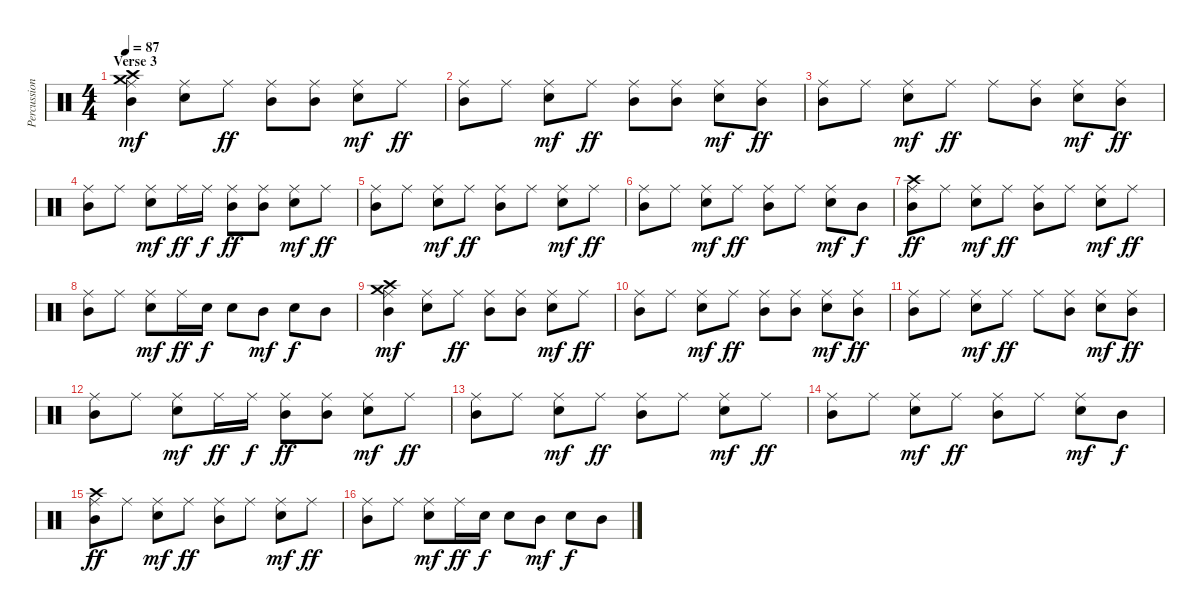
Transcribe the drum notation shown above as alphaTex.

\track ("Percussion" "Percussion") {instrument percussion}
\staff {score}
\articulation defaults
\ts (4 4)
\section ("" "Verse 3")
\tempo 87
\clef neutral
\ks c
("Ride (middle)" "Crash high (hit)" "Crash medium (hit)" "Mid Tom (hit)").4{dy mf} ("Ride (middle)" "Snare (hit) 2").8 "Ride (middle)".8{dy ff} ("Ride (middle)" "Mid Tom (hit)").8 ("Ride (middle)" "Mid Tom (hit)").8 ("Ride (middle)" "Snare (hit) 2").8{dy mf} "Ride (middle)".8{dy ff} |
("Ride (middle)" "Mid Tom (hit)").8 "Ride (middle)".8 ("Ride (middle)" "Snare (hit) 2").8{dy mf} "Ride (middle)".8{dy ff} ("Ride (middle)" "Mid Tom (hit)").8 ("Ride (middle)" "Mid Tom (hit)").8 ("Ride (middle)" "Snare (hit) 2").8{dy mf} ("Ride (middle)" "Mid Tom (hit)").8{dy ff} |
("Ride (middle)" "Mid Tom (hit)").8 "Ride (middle)".8 ("Ride (middle)" "Snare (hit) 2").8{dy mf} "Ride (middle)".8{dy ff} "Ride (middle)".8 ("Ride (middle)" "Mid Tom (hit)").8 ("Ride (middle)" "Snare (hit) 2").8{dy mf} ("Ride (middle)" "Mid Tom (hit)").8{dy ff} |
("Ride (middle)" "Mid Tom (hit)").8 "Ride (middle)".8 ("Ride (middle)" "Snare (hit) 2").8{dy mf} "Ride (middle)".16{dy ff} "Ride (middle)".16{dy f} ("Ride (middle)" "Mid Tom (hit)").8{dy ff} ("Ride (middle)" "Mid Tom (hit)").8 ("Ride (middle)" "Snare (hit) 2").8{dy mf} "Ride (middle)".8{dy ff} |
("Ride (middle)" "Mid Tom (hit)").8 "Ride (middle)".8 ("Ride (middle)" "Snare (hit) 2").8{dy mf} "Ride (middle)".8{dy ff} ("Ride (middle)" "Mid Tom (hit)").8 "Ride (middle)".8 ("Ride (middle)" "Snare (hit) 2").8{dy mf} "Ride (middle)".8{dy ff} |
("Ride (middle)" "Mid Tom (hit)").8 "Ride (middle)".8 ("Ride (middle)" "Snare (hit) 2").8{dy mf} "Ride (middle)".8{dy ff} ("Ride (middle)" "Mid Tom (hit)").8 "Ride (middle)".8 ("Ride (middle)" "Snare (hit) 2").8{dy mf} "Mid Tom (hit)".8{dy f} |
("Ride (middle)" "Crash high (hit)" "Mid Tom (hit)").8{dy ff} "Ride (middle)".8 ("Ride (middle)" "Snare (hit) 2").8{dy mf} "Ride (middle)".8{dy ff} ("Ride (middle)" "Mid Tom (hit)").8 "Ride (middle)".8 ("Ride (middle)" "Snare (hit) 2").8{dy mf} "Ride (middle)".8{dy ff} |
("Ride (middle)" "Mid Tom (hit)").8 "Ride (middle)".8 ("Ride (middle)" "Snare (hit) 2").8{dy mf} "Ride (middle)".16{dy ff} "Snare (hit) 2".16{dy f} "Snare (hit) 2".8 "Mid Tom (hit)".8{dy mf} "Snare (hit) 2".8{dy f} "Mid Tom (hit)".8 |
("Ride (middle)" "Crash high (hit)" "Crash medium (hit)" "Mid Tom (hit)").4{dy mf} ("Ride (middle)" "Snare (hit) 2").8 "Ride (middle)".8{dy ff} ("Ride (middle)" "Mid Tom (hit)").8 ("Ride (middle)" "Mid Tom (hit)").8 ("Ride (middle)" "Snare (hit) 2").8{dy mf} "Ride (middle)".8{dy ff} |
("Ride (middle)" "Mid Tom (hit)").8 "Ride (middle)".8 ("Ride (middle)" "Snare (hit) 2").8{dy mf} "Ride (middle)".8{dy ff} ("Ride (middle)" "Mid Tom (hit)").8 ("Ride (middle)" "Mid Tom (hit)").8 ("Ride (middle)" "Snare (hit) 2").8{dy mf} ("Ride (middle)" "Mid Tom (hit)").8{dy ff} |
("Ride (middle)" "Mid Tom (hit)").8 "Ride (middle)".8 ("Ride (middle)" "Snare (hit) 2").8{dy mf} "Ride (middle)".8{dy ff} "Ride (middle)".8 ("Ride (middle)" "Mid Tom (hit)").8 ("Ride (middle)" "Snare (hit) 2").8{dy mf} ("Ride (middle)" "Mid Tom (hit)").8{dy ff} |
("Ride (middle)" "Mid Tom (hit)").8 "Ride (middle)".8 ("Ride (middle)" "Snare (hit) 2").8{dy mf} "Ride (middle)".16{dy ff} "Ride (middle)".16{dy f} ("Ride (middle)" "Mid Tom (hit)").8{dy ff} ("Ride (middle)" "Mid Tom (hit)").8 ("Ride (middle)" "Snare (hit) 2").8{dy mf} "Ride (middle)".8{dy ff} |
("Ride (middle)" "Mid Tom (hit)").8 "Ride (middle)".8 ("Ride (middle)" "Snare (hit) 2").8{dy mf} "Ride (middle)".8{dy ff} ("Ride (middle)" "Mid Tom (hit)").8 "Ride (middle)".8 ("Ride (middle)" "Snare (hit) 2").8{dy mf} "Ride (middle)".8{dy ff} |
("Ride (middle)" "Mid Tom (hit)").8 "Ride (middle)".8 ("Ride (middle)" "Snare (hit) 2").8{dy mf} "Ride (middle)".8{dy ff} ("Ride (middle)" "Mid Tom (hit)").8 "Ride (middle)".8 ("Ride (middle)" "Snare (hit) 2").8{dy mf} "Mid Tom (hit)".8{dy f} |
("Ride (middle)" "Crash high (hit)" "Mid Tom (hit)").8{dy ff} "Ride (middle)".8 ("Ride (middle)" "Snare (hit) 2").8{dy mf} "Ride (middle)".8{dy ff} ("Ride (middle)" "Mid Tom (hit)").8 "Ride (middle)".8 ("Ride (middle)" "Snare (hit) 2").8{dy mf} "Ride (middle)".8{dy ff} |
("Ride (middle)" "Mid Tom (hit)").8 "Ride (middle)".8 ("Ride (middle)" "Snare (hit) 2").8{dy mf} "Ride (middle)".16{dy ff} "Snare (hit) 2".16{dy f} "Snare (hit) 2".8 "Mid Tom (hit)".8{dy mf} "Snare (hit) 2".8{dy f} "Mid Tom (hit)".8
